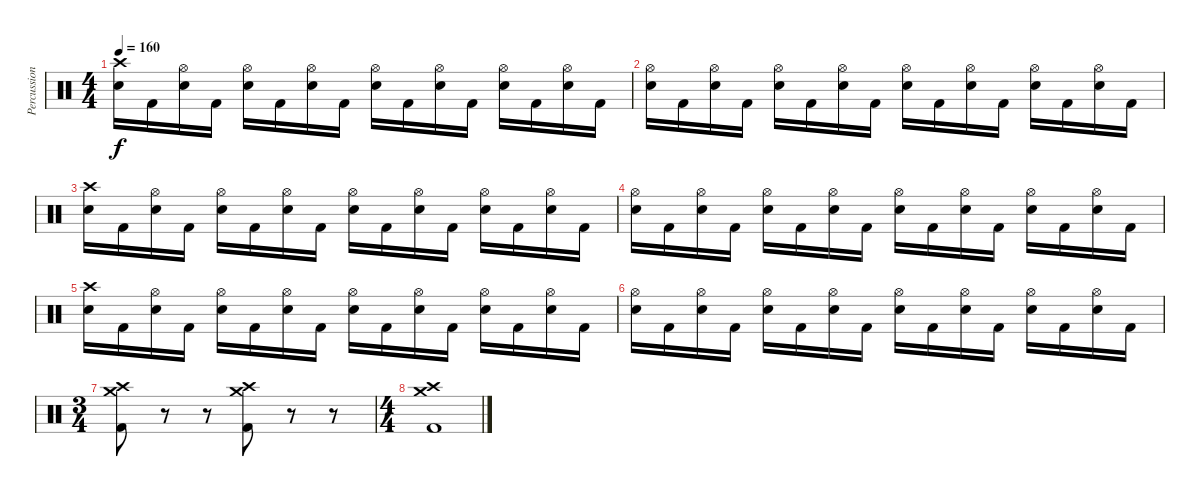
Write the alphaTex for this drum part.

\track ("Percussion" "Percussion") {instrument percussion}
\staff {score}
\articulation defaults
\ts (4 4)
\tempo 160
\clef neutral
\ks c
("Crash high (hit)" "Snare (hit) 2").16{dy f} "Kick (hit) 2".16 ("Hi-Hat (open)" "Snare (hit) 2").16 "Kick (hit) 2".16 ("Hi-Hat (open)" "Snare (hit) 2").16 "Kick (hit) 2".16 ("Hi-Hat (open)" "Snare (hit) 2").16 "Kick (hit) 2".16 ("Hi-Hat (open)" "Snare (hit) 2").16 "Kick (hit) 2".16 ("Hi-Hat (open)" "Snare (hit) 2").16 "Kick (hit) 2".16 ("Hi-Hat (open)" "Snare (hit) 2").16 "Kick (hit) 2".16 ("Hi-Hat (open)" "Snare (hit) 2").16 "Kick (hit) 2".16 |
("Hi-Hat (open)" "Snare (hit) 2").16 "Kick (hit) 2".16 ("Hi-Hat (open)" "Snare (hit) 2").16 "Kick (hit) 2".16 ("Hi-Hat (open)" "Snare (hit) 2").16 "Kick (hit) 2".16 ("Hi-Hat (open)" "Snare (hit) 2").16 "Kick (hit) 2".16 ("Hi-Hat (open)" "Snare (hit) 2").16 "Kick (hit) 2".16 ("Hi-Hat (open)" "Snare (hit) 2").16 "Kick (hit) 2".16 ("Hi-Hat (open)" "Snare (hit) 2").16 "Kick (hit) 2".16 ("Hi-Hat (open)" "Snare (hit) 2").16 "Kick (hit) 2".16 |
("Crash high (hit)" "Snare (hit) 2").16 "Kick (hit) 2".16 ("Hi-Hat (open)" "Snare (hit) 2").16 "Kick (hit) 2".16 ("Hi-Hat (open)" "Snare (hit) 2").16 "Kick (hit) 2".16 ("Hi-Hat (open)" "Snare (hit) 2").16 "Kick (hit) 2".16 ("Hi-Hat (open)" "Snare (hit) 2").16 "Kick (hit) 2".16 ("Hi-Hat (open)" "Snare (hit) 2").16 "Kick (hit) 2".16 ("Hi-Hat (open)" "Snare (hit) 2").16 "Kick (hit) 2".16 ("Hi-Hat (open)" "Snare (hit) 2").16 "Kick (hit) 2".16 |
("Hi-Hat (open)" "Snare (hit) 2").16 "Kick (hit) 2".16 ("Hi-Hat (open)" "Snare (hit) 2").16 "Kick (hit) 2".16 ("Hi-Hat (open)" "Snare (hit) 2").16 "Kick (hit) 2".16 ("Hi-Hat (open)" "Snare (hit) 2").16 "Kick (hit) 2".16 ("Hi-Hat (open)" "Snare (hit) 2").16 "Kick (hit) 2".16 ("Hi-Hat (open)" "Snare (hit) 2").16 "Kick (hit) 2".16 ("Hi-Hat (open)" "Snare (hit) 2").16 "Kick (hit) 2".16 ("Hi-Hat (open)" "Snare (hit) 2").16 "Kick (hit) 2".16 |
("Crash high (hit)" "Snare (hit) 2").16 "Kick (hit) 2".16 ("Hi-Hat (open)" "Snare (hit) 2").16 "Kick (hit) 2".16 ("Hi-Hat (open)" "Snare (hit) 2").16 "Kick (hit) 2".16 ("Hi-Hat (open)" "Snare (hit) 2").16 "Kick (hit) 2".16 ("Hi-Hat (open)" "Snare (hit) 2").16 "Kick (hit) 2".16 ("Hi-Hat (open)" "Snare (hit) 2").16 "Kick (hit) 2".16 ("Hi-Hat (open)" "Snare (hit) 2").16 "Kick (hit) 2".16 ("Hi-Hat (open)" "Snare (hit) 2").16 "Kick (hit) 2".16 |
("Hi-Hat (open)" "Snare (hit) 2").16 "Kick (hit) 2".16 ("Hi-Hat (open)" "Snare (hit) 2").16 "Kick (hit) 2".16 ("Hi-Hat (open)" "Snare (hit) 2").16 "Kick (hit) 2".16 ("Hi-Hat (open)" "Snare (hit) 2").16 "Kick (hit) 2".16 ("Hi-Hat (open)" "Snare (hit) 2").16 "Kick (hit) 2".16 ("Hi-Hat (open)" "Snare (hit) 2").16 "Kick (hit) 2".16 ("Hi-Hat (open)" "Snare (hit) 2").16 "Kick (hit) 2".16 ("Hi-Hat (open)" "Snare (hit) 2").16 "Kick (hit) 2".16 |
\ts (3 4)
("Crash high (hit)" "Crash medium (hit)" "Kick (hit) 2").8 r.8 r.8 ("Crash medium (hit)" "Crash high (hit)" "Kick (hit) 2").8 r.8 r.8 |
\ts (4 4)
("Crash medium (hit)" "Crash high (hit)" "Kick (hit) 2").1
